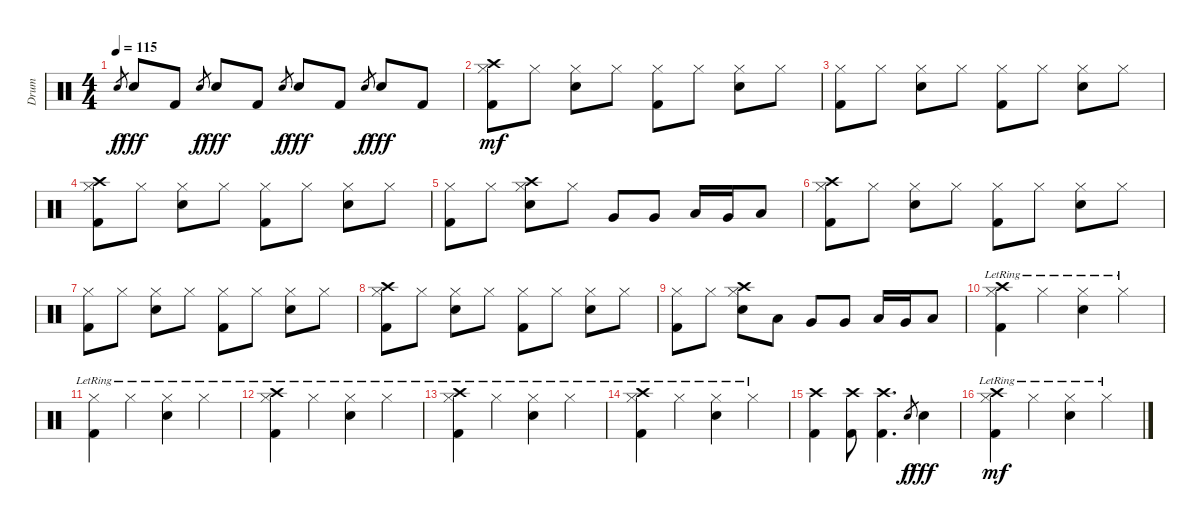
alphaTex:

\track ("Drum" "Drum") {instrument percussion}
\staff {score}
\articulation defaults
\ts (4 4)
\tempo 115
\clef neutral
\ks c "Snare (hit) 2".8{gr dy f} "Snare (hit) 2".8{dy fff} "Kick (hit) 2".8 "Snare (hit) 2".8{gr dy f} "Snare (hit) 2".8{dy fff} "Kick (hit) 2".8 "Snare (hit) 2".8{gr dy f} "Snare (hit) 2".8{dy fff} "Kick (hit) 2".8 "Snare (hit) 2".8{gr dy f} "Snare (hit) 2".8{dy fff} "Kick (hit) 2".8
|
("Kick (hit) 2" "Hi-Hat (closed)" "Crash high (hit)").8{dy mf} "Hi-Hat (closed)".8 ("Snare (hit) 2" "Hi-Hat (closed)").8 "Hi-Hat (closed)".8 ("Kick (hit) 2" "Hi-Hat (closed)").8 "Hi-Hat (closed)".8 ("Snare (hit) 2" "Hi-Hat (closed)").8 "Hi-Hat (closed)".8 |
("Kick (hit) 2" "Hi-Hat (closed)").8 "Hi-Hat (closed)".8 ("Snare (hit) 2" "Hi-Hat (closed)").8 "Hi-Hat (closed)".8 ("Kick (hit) 2" "Hi-Hat (closed)").8 "Hi-Hat (closed)".8 ("Snare (hit) 2" "Hi-Hat (closed)").8 "Hi-Hat (closed)".8 |
("Kick (hit) 2" "Hi-Hat (closed)" "Crash high (hit)").8 "Hi-Hat (closed)".8 ("Snare (hit) 2" "Hi-Hat (closed)").8 "Hi-Hat (closed)".8 ("Kick (hit) 2" "Hi-Hat (closed)").8 "Hi-Hat (closed)".8 ("Snare (hit) 2" "Hi-Hat (closed)").8 "Hi-Hat (closed)".8 |
("Kick (hit) 2" "Hi-Hat (closed)").8 "Hi-Hat (closed)".8 ("Snare (hit) 2" "Hi-Hat (closed)" "Crash high (hit)").8 "Hi-Hat (closed)".8 "Very Low Tom (hit)".8 "Very Low Tom (hit)".8 "Low Tom (hit)".16 "Very Low Tom (hit)".16 "Low Floor Tom (hit)".8 |
("Kick (hit) 2" "Hi-Hat (closed)" "Crash high (hit)").8 "Hi-Hat (closed)".8 ("Snare (hit) 2" "Hi-Hat (closed)").8 "Hi-Hat (closed)".8 ("Kick (hit) 2" "Hi-Hat (closed)").8 "Hi-Hat (closed)".8 ("Snare (hit) 2" "Hi-Hat (closed)").8 "Hi-Hat (closed)".8 |
("Kick (hit) 2" "Hi-Hat (closed)").8 "Hi-Hat (closed)".8 ("Snare (hit) 2" "Hi-Hat (closed)").8 "Hi-Hat (closed)".8 ("Kick (hit) 2" "Hi-Hat (closed)").8 "Hi-Hat (closed)".8 ("Snare (hit) 2" "Hi-Hat (closed)").8 "Hi-Hat (closed)".8 |
("Kick (hit) 2" "Hi-Hat (closed)" "Crash high (hit)").8 "Hi-Hat (closed)".8 ("Snare (hit) 2" "Hi-Hat (closed)").8 "Hi-Hat (closed)".8 ("Kick (hit) 2" "Hi-Hat (closed)").8 "Hi-Hat (closed)".8 ("Snare (hit) 2" "Hi-Hat (closed)").8 "Hi-Hat (closed)".8 |
("Kick (hit) 2" "Hi-Hat (closed)").8 "Hi-Hat (closed)".8 ("Snare (hit) 2" "Hi-Hat (closed)" "Crash high (hit)").8 "Low Tom (hit)".8 "Very Low Tom (hit)".8 "Very Low Tom (hit)".8 "Low Tom (hit)".16 "Very Low Tom (hit)".16 "Low Floor Tom (hit)".8 |
("Kick (hit) 2"{lr} "Hi-Hat (closed)"{lr} "Crash high (hit)"{lr}).4 "Hi-Hat (closed)"{lr}.4 ("Snare (hit) 2"{lr} "Hi-Hat (closed)"{lr}).4 "Hi-Hat (closed)"{lr}.4 |
("Kick (hit) 2"{lr} "Hi-Hat (closed)"{lr}).4 "Hi-Hat (closed)"{lr}.4 ("Snare (hit) 2"{lr} "Hi-Hat (closed)"{lr}).4 "Hi-Hat (closed)"{lr}.4 |
("Kick (hit) 2"{lr} "Hi-Hat (closed)"{lr} "Crash high (hit)"{lr}).4 "Hi-Hat (closed)"{lr}.4 ("Snare (hit) 2"{lr} "Hi-Hat (closed)"{lr}).4 "Hi-Hat (closed)"{lr}.4 |
("Kick (hit) 2"{lr} "Hi-Hat (closed)"{lr} "Crash high (hit)").4 "Hi-Hat (closed)"{lr}.4 ("Snare (hit) 2"{lr} "Hi-Hat (closed)"{lr}).4 "Hi-Hat (closed)"{lr}.4 |
("Kick (hit) 2"{lr} "Hi-Hat (closed)"{lr} "Crash high (hit)").4 "Hi-Hat (closed)"{lr}.4 ("Snare (hit) 2"{lr} "Hi-Hat (closed)"{lr}).4 "Hi-Hat (closed)"{lr}.4 |
("Crash high (hit)" "Kick (hit) 2").4 ("Crash high (hit)" "Kick (hit) 2").8 ("Crash high (hit)" "Kick (hit) 2").4{d} "Snare (hit) 2".8{gr dy f} "Snare (hit) 2".4{dy fff} |
("Kick (hit) 2"{lr} "Hi-Hat (closed)"{lr} "Crash high (hit)"{lr}).4{dy mf} "Hi-Hat (closed)"{lr}.4 ("Snare (hit) 2"{lr} "Hi-Hat (closed)"{lr}).4 "Hi-Hat (closed)"{lr}.4
